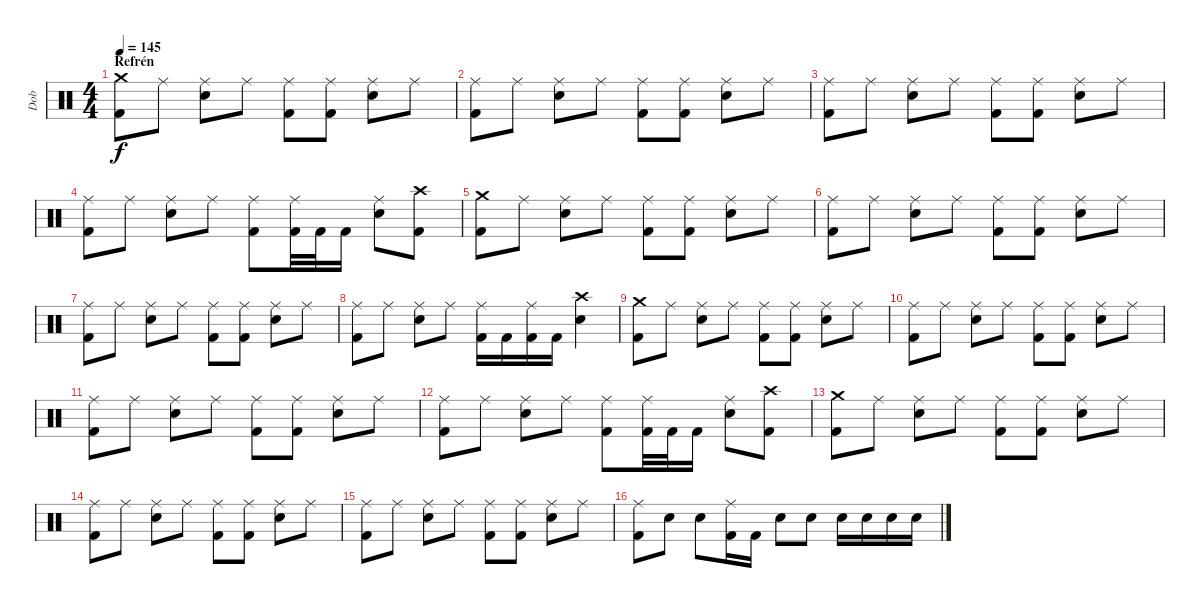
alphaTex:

\track ("Dob" "Dob") {instrument percussion}
\staff {score}
\articulation defaults
\ts (4 4)
\section ("" "Refrén")
\tempo 145
\clef neutral
\ks c
("Crash medium (hit)" "Kick (hit) 2").8{dy f} "Ride (middle)".8 ("Ride (middle)" "Electric Snare (hit)").8 "Ride (middle)".8 ("Ride (middle)" "Kick (hit) 2").8 ("Ride (middle)" "Kick (hit) 2").8 ("Ride (middle)" "Electric Snare (hit)").8 "Ride (middle)".8 |
("Ride (middle)" "Kick (hit) 2").8 "Ride (middle)".8 ("Ride (middle)" "Electric Snare (hit)").8 "Ride (middle)".8 ("Ride (middle)" "Kick (hit) 2").8 ("Ride (middle)" "Kick (hit) 2").8 ("Ride (middle)" "Electric Snare (hit)").8 "Ride (middle)".8 |
("Ride (middle)" "Kick (hit) 2").8 "Ride (middle)".8 ("Ride (middle)" "Electric Snare (hit)").8 "Ride (middle)".8 ("Ride (middle)" "Kick (hit) 2").8 ("Ride (middle)" "Kick (hit) 2").8 ("Ride (middle)" "Electric Snare (hit)").8 "Ride (middle)".8 |
("Ride (middle)" "Kick (hit) 2").8 "Ride (middle)".8 ("Ride (middle)" "Electric Snare (hit)").8 "Ride (middle)".8 ("Ride (middle)" "Kick (hit) 2").8 ("Ride (middle)" "Kick (hit) 2").32 "Kick (hit) 2".32 "Kick (hit) 2".16 ("Ride (middle)" "Electric Snare (hit)").8 ("Crash high (hit)" "Kick (hit) 2").8 |
("Crash medium (hit)" "Kick (hit) 2").8 "Ride (middle)".8 ("Ride (middle)" "Electric Snare (hit)").8 "Ride (middle)".8 ("Ride (middle)" "Kick (hit) 2").8 ("Ride (middle)" "Kick (hit) 2").8 ("Ride (middle)" "Electric Snare (hit)").8 "Ride (middle)".8 |
("Ride (middle)" "Kick (hit) 2").8 "Ride (middle)".8 ("Ride (middle)" "Electric Snare (hit)").8 "Ride (middle)".8 ("Ride (middle)" "Kick (hit) 2").8 ("Ride (middle)" "Kick (hit) 2").8 ("Ride (middle)" "Electric Snare (hit)").8 "Ride (middle)".8 |
("Ride (middle)" "Kick (hit) 2").8 "Ride (middle)".8 ("Ride (middle)" "Electric Snare (hit)").8 "Ride (middle)".8 ("Ride (middle)" "Kick (hit) 2").8 ("Ride (middle)" "Kick (hit) 2").8 ("Ride (middle)" "Electric Snare (hit)").8 "Ride (middle)".8 |
("Ride (middle)" "Kick (hit) 2").8 "Ride (middle)".8 ("Ride (middle)" "Electric Snare (hit)").8 "Ride (middle)".8 ("Ride (middle)" "Kick (hit) 2").16 "Kick (hit) 2".16 ("Ride (middle)" "Kick (hit) 2").16 "Kick (hit) 2".16 ("Crash high (hit)" "Electric Snare (hit)").4 |
("Crash medium (hit)" "Kick (hit) 2").8 "Ride (middle)".8 ("Ride (middle)" "Electric Snare (hit)").8 "Ride (middle)".8 ("Ride (middle)" "Kick (hit) 2").8 ("Ride (middle)" "Kick (hit) 2").8 ("Ride (middle)" "Electric Snare (hit)").8 "Ride (middle)".8 |
("Ride (middle)" "Kick (hit) 2").8 "Ride (middle)".8 ("Ride (middle)" "Electric Snare (hit)").8 "Ride (middle)".8 ("Ride (middle)" "Kick (hit) 2").8 ("Ride (middle)" "Kick (hit) 2").8 ("Ride (middle)" "Electric Snare (hit)").8 "Ride (middle)".8 |
("Ride (middle)" "Kick (hit) 2").8 "Ride (middle)".8 ("Ride (middle)" "Electric Snare (hit)").8 "Ride (middle)".8 ("Ride (middle)" "Kick (hit) 2").8 ("Ride (middle)" "Kick (hit) 2").8 ("Ride (middle)" "Electric Snare (hit)").8 "Ride (middle)".8 |
("Ride (middle)" "Kick (hit) 2").8 "Ride (middle)".8 ("Ride (middle)" "Electric Snare (hit)").8 "Ride (middle)".8 ("Ride (middle)" "Kick (hit) 2").8 ("Ride (middle)" "Kick (hit) 2").32 "Kick (hit) 2".32 "Kick (hit) 2".16 ("Ride (middle)" "Electric Snare (hit)").8 ("Crash high (hit)" "Kick (hit) 2").8 |
("Crash medium (hit)" "Kick (hit) 2").8 "Ride (middle)".8 ("Ride (middle)" "Electric Snare (hit)").8 "Ride (middle)".8 ("Ride (middle)" "Kick (hit) 2").8 ("Ride (middle)" "Kick (hit) 2").8 ("Ride (middle)" "Electric Snare (hit)").8 "Ride (middle)".8 |
("Ride (middle)" "Kick (hit) 2").8 "Ride (middle)".8 ("Ride (middle)" "Electric Snare (hit)").8 "Ride (middle)".8 ("Ride (middle)" "Kick (hit) 2").8 ("Ride (middle)" "Kick (hit) 2").8 ("Ride (middle)" "Electric Snare (hit)").8 "Ride (middle)".8 |
("Ride (middle)" "Kick (hit) 2").8 "Ride (middle)".8 ("Ride (middle)" "Electric Snare (hit)").8 "Ride (middle)".8 ("Ride (middle)" "Kick (hit) 2").8 ("Ride (middle)" "Kick (hit) 2").8 ("Ride (middle)" "Electric Snare (hit)").8 "Ride (middle)".8 |
("Ride (middle)" "Kick (hit) 2").8 "Electric Snare (hit)".8 "Electric Snare (hit)".8 ("Ride (middle)" "Kick (hit) 2").16 "Kick (hit) 2".16 "Electric Snare (hit)".8 "Electric Snare (hit)".8 "Electric Snare (hit)".16 "Electric Snare (hit)".16 "Electric Snare (hit)".16 "Electric Snare (hit)".16
